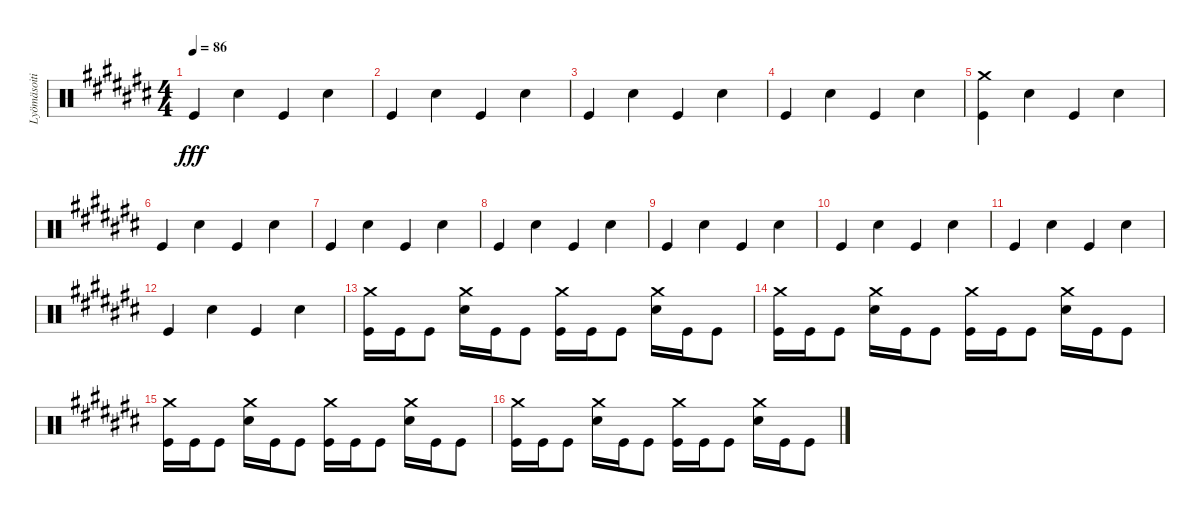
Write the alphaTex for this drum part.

\track ("Lyömäsoitin" "Lyömäsoiti") {instrument percussion}
\staff {score}
\articulation defaults
\ts (4 4)
\tempo 86
\clef neutral
\ks c# "Kick (hit)".4{dy fff} "Snare (hit) 2".4 "Kick (hit)".4 "Snare (hit) 2".4
|
"Kick (hit)".4 "Snare (hit) 2".4 "Kick (hit)".4 "Snare (hit) 2".4 |
"Kick (hit)".4 "Snare (hit) 2".4 "Kick (hit)".4 "Snare (hit) 2".4 |
"Kick (hit)".4 "Snare (hit) 2".4 "Kick (hit)".4 "Snare (hit) 2".4 |
("Crash medium (hit)" "Kick (hit)").4 "Snare (hit) 2".4 "Kick (hit)".4 "Snare (hit) 2".4 |
"Kick (hit)".4 "Snare (hit) 2".4 "Kick (hit)".4 "Snare (hit) 2".4 |
"Kick (hit)".4 "Snare (hit) 2".4 "Kick (hit)".4 "Snare (hit) 2".4 |
"Kick (hit)".4 "Snare (hit) 2".4 "Kick (hit)".4 "Snare (hit) 2".4 |
"Kick (hit)".4 "Snare (hit) 2".4 "Kick (hit)".4 "Snare (hit) 2".4 |
"Kick (hit)".4 "Snare (hit) 2".4 "Kick (hit)".4 "Snare (hit) 2".4 |
"Kick (hit)".4 "Snare (hit) 2".4 "Kick (hit)".4 "Snare (hit) 2".4 |
"Kick (hit)".4 "Snare (hit) 2".4 "Kick (hit)".4 "Snare (hit) 2".4 |
("Crash medium (hit)" "Kick (hit)").16 "Kick (hit)".16 "Kick (hit)".8 ("Crash medium (hit)" "Snare (hit) 2").16 "Kick (hit)".16 "Kick (hit)".8 ("Crash medium (hit)" "Kick (hit)").16 "Kick (hit)".16 "Kick (hit)".8 ("Crash medium (hit)" "Snare (hit) 2").16 "Kick (hit)".16 "Kick (hit)".8 |
("Crash medium (hit)" "Kick (hit)").16 "Kick (hit)".16 "Kick (hit)".8 ("Crash medium (hit)" "Snare (hit) 2").16 "Kick (hit)".16 "Kick (hit)".8 ("Crash medium (hit)" "Kick (hit)").16 "Kick (hit)".16 "Kick (hit)".8 ("Crash medium (hit)" "Snare (hit) 2").16 "Kick (hit)".16 "Kick (hit)".8 |
("Crash medium (hit)" "Kick (hit)").16 "Kick (hit)".16 "Kick (hit)".8 ("Crash medium (hit)" "Snare (hit) 2").16 "Kick (hit)".16 "Kick (hit)".8 ("Crash medium (hit)" "Kick (hit)").16 "Kick (hit)".16 "Kick (hit)".8 ("Crash medium (hit)" "Snare (hit) 2").16 "Kick (hit)".16 "Kick (hit)".8 |
("Crash medium (hit)" "Kick (hit)").16 "Kick (hit)".16 "Kick (hit)".8 ("Crash medium (hit)" "Snare (hit) 2").16 "Kick (hit)".16 "Kick (hit)".8 ("Crash medium (hit)" "Kick (hit)").16 "Kick (hit)".16 "Kick (hit)".8 ("Crash medium (hit)" "Snare (hit) 2").16 "Kick (hit)".16 "Kick (hit)".8
